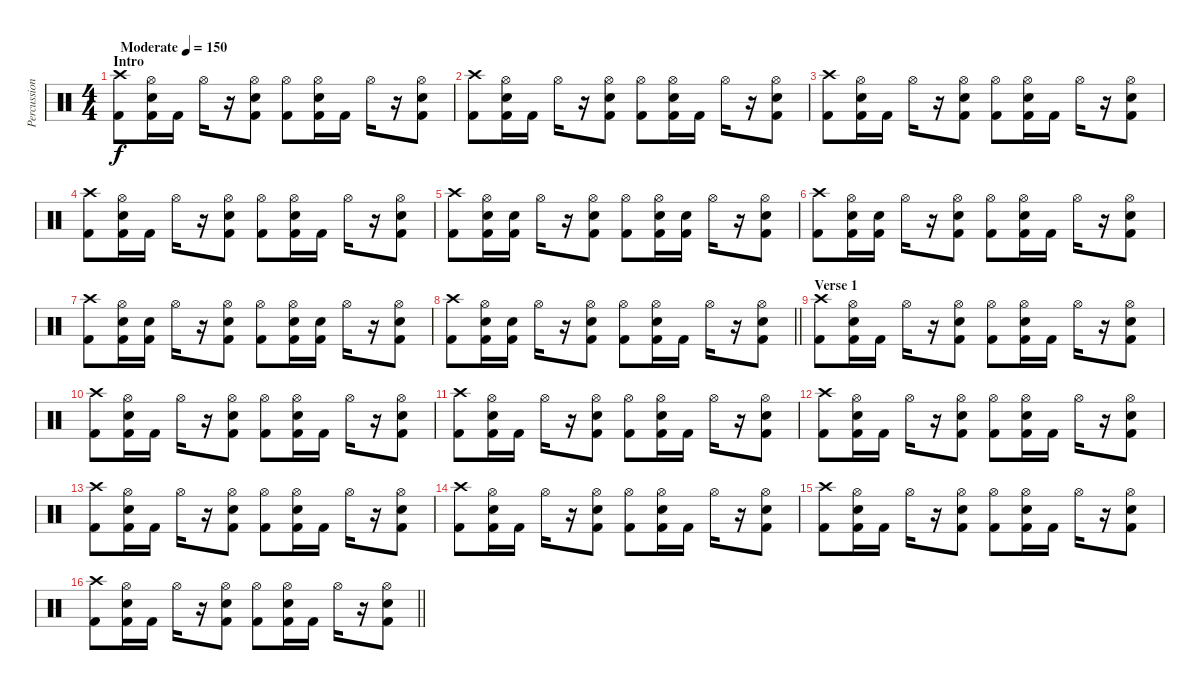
\track ("Percussion" "Percussion") {instrument percussion}
\staff {score}
\articulation defaults
\ts (4 4)
\section ("" "Intro")
\tempo (150 "Moderate")
\clef neutral
\ks c
("Crash high (hit)" "Kick (hit) 2").8{dy f} ("Hi-Hat (open)" "Snare (hit) 2" "Kick (hit) 2").16 "Kick (hit) 2".16 "Hi-Hat (open)".16 r.16 ("Hi-Hat (open)" "Snare (hit) 2" "Kick (hit) 2").8 ("Hi-Hat (open)" "Kick (hit) 2").8 ("Hi-Hat (open)" "Snare (hit) 2" "Kick (hit) 2").16 "Kick (hit) 2".16 "Hi-Hat (open)".16 r.16 ("Hi-Hat (open)" "Snare (hit) 2" "Kick (hit) 2").8 |
("Crash high (hit)" "Kick (hit) 2").8 ("Hi-Hat (open)" "Snare (hit) 2" "Kick (hit) 2").16 "Kick (hit) 2".16 "Hi-Hat (open)".16 r.16 ("Hi-Hat (open)" "Snare (hit) 2" "Kick (hit) 2").8 ("Hi-Hat (open)" "Kick (hit) 2").8 ("Hi-Hat (open)" "Snare (hit) 2" "Kick (hit) 2").16 "Kick (hit) 2".16 "Hi-Hat (open)".16 r.16 ("Hi-Hat (open)" "Snare (hit) 2" "Kick (hit) 2").8 |
("Crash high (hit)" "Kick (hit) 2").8 ("Hi-Hat (open)" "Snare (hit) 2" "Kick (hit) 2").16 "Kick (hit) 2".16 "Hi-Hat (open)".16 r.16 ("Hi-Hat (open)" "Snare (hit) 2" "Kick (hit) 2").8 ("Hi-Hat (open)" "Kick (hit) 2").8 ("Hi-Hat (open)" "Snare (hit) 2" "Kick (hit) 2").16 "Kick (hit) 2".16 "Hi-Hat (open)".16 r.16 ("Hi-Hat (open)" "Snare (hit) 2" "Kick (hit) 2").8 |
("Crash high (hit)" "Kick (hit) 2").8 ("Hi-Hat (open)" "Snare (hit) 2" "Kick (hit) 2").16 "Kick (hit) 2".16 "Hi-Hat (open)".16 r.16 ("Hi-Hat (open)" "Snare (hit) 2" "Kick (hit) 2").8 ("Hi-Hat (open)" "Kick (hit) 2").8 ("Hi-Hat (open)" "Snare (hit) 2" "Kick (hit) 2").16 "Kick (hit) 2".16 "Hi-Hat (open)".16 r.16 ("Hi-Hat (open)" "Snare (hit) 2" "Kick (hit) 2").8 |
("Crash high (hit)" "Kick (hit) 2").8 ("Hi-Hat (open)" "Snare (hit) 2" "Kick (hit) 2").16 ("Snare (hit) 2" "Kick (hit) 2").16 "Hi-Hat (open)".16 r.16 ("Hi-Hat (open)" "Snare (hit) 2" "Kick (hit) 2").8 ("Hi-Hat (open)" "Kick (hit) 2").8 ("Hi-Hat (open)" "Snare (hit) 2" "Kick (hit) 2").16 ("Snare (hit) 2" "Kick (hit) 2").16 "Hi-Hat (open)".16 r.16 ("Hi-Hat (open)" "Snare (hit) 2" "Kick (hit) 2").8 |
("Crash high (hit)" "Kick (hit) 2").8 ("Hi-Hat (open)" "Snare (hit) 2" "Kick (hit) 2").16 ("Snare (hit) 2" "Kick (hit) 2").16 "Hi-Hat (open)".16 r.16 ("Hi-Hat (open)" "Snare (hit) 2" "Kick (hit) 2").8 ("Hi-Hat (open)" "Kick (hit) 2").8 ("Hi-Hat (open)" "Snare (hit) 2" "Kick (hit) 2").16 "Kick (hit) 2".16 "Hi-Hat (open)".16 r.16 ("Hi-Hat (open)" "Snare (hit) 2" "Kick (hit) 2").8 |
("Crash high (hit)" "Kick (hit) 2").8 ("Hi-Hat (open)" "Snare (hit) 2" "Kick (hit) 2").16 ("Snare (hit) 2" "Kick (hit) 2").16 "Hi-Hat (open)".16 r.16 ("Hi-Hat (open)" "Snare (hit) 2" "Kick (hit) 2").8 ("Hi-Hat (open)" "Kick (hit) 2").8 ("Hi-Hat (open)" "Snare (hit) 2" "Kick (hit) 2").16 ("Snare (hit) 2" "Kick (hit) 2").16 "Hi-Hat (open)".16 r.16 ("Hi-Hat (open)" "Snare (hit) 2" "Kick (hit) 2").8 |
\barLineRight lightlight
("Crash high (hit)" "Kick (hit) 2").8 ("Hi-Hat (open)" "Snare (hit) 2" "Kick (hit) 2").16 ("Snare (hit) 2" "Kick (hit) 2").16 "Hi-Hat (open)".16 r.16 ("Hi-Hat (open)" "Snare (hit) 2" "Kick (hit) 2").8 ("Hi-Hat (open)" "Kick (hit) 2").8 ("Hi-Hat (open)" "Snare (hit) 2" "Kick (hit) 2").16 "Kick (hit) 2".16 "Hi-Hat (open)".16 r.16 ("Hi-Hat (open)" "Snare (hit) 2" "Kick (hit) 2").8 |
\section ("" "Verse 1 ")
("Crash high (hit)" "Kick (hit) 2").8 ("Hi-Hat (open)" "Snare (hit) 2" "Kick (hit) 2").16 "Kick (hit) 2".16 "Hi-Hat (open)".16 r.16 ("Hi-Hat (open)" "Snare (hit) 2" "Kick (hit) 2").8 ("Hi-Hat (open)" "Kick (hit) 2").8 ("Hi-Hat (open)" "Snare (hit) 2" "Kick (hit) 2").16 "Kick (hit) 2".16 "Hi-Hat (open)".16 r.16 ("Hi-Hat (open)" "Snare (hit) 2" "Kick (hit) 2").8 |
("Crash high (hit)" "Kick (hit) 2").8 ("Hi-Hat (open)" "Snare (hit) 2" "Kick (hit) 2").16 "Kick (hit) 2".16 "Hi-Hat (open)".16 r.16 ("Hi-Hat (open)" "Snare (hit) 2" "Kick (hit) 2").8 ("Hi-Hat (open)" "Kick (hit) 2").8 ("Hi-Hat (open)" "Snare (hit) 2" "Kick (hit) 2").16 "Kick (hit) 2".16 "Hi-Hat (open)".16 r.16 ("Hi-Hat (open)" "Snare (hit) 2" "Kick (hit) 2").8 |
("Crash high (hit)" "Kick (hit) 2").8 ("Hi-Hat (open)" "Snare (hit) 2" "Kick (hit) 2").16 "Kick (hit) 2".16 "Hi-Hat (open)".16 r.16 ("Hi-Hat (open)" "Snare (hit) 2" "Kick (hit) 2").8 ("Hi-Hat (open)" "Kick (hit) 2").8 ("Hi-Hat (open)" "Snare (hit) 2" "Kick (hit) 2").16 "Kick (hit) 2".16 "Hi-Hat (open)".16 r.16 ("Hi-Hat (open)" "Snare (hit) 2" "Kick (hit) 2").8 |
("Crash high (hit)" "Kick (hit) 2").8 ("Hi-Hat (open)" "Snare (hit) 2" "Kick (hit) 2").16 "Kick (hit) 2".16 "Hi-Hat (open)".16 r.16 ("Hi-Hat (open)" "Snare (hit) 2" "Kick (hit) 2").8 ("Hi-Hat (open)" "Kick (hit) 2").8 ("Hi-Hat (open)" "Snare (hit) 2" "Kick (hit) 2").16 "Kick (hit) 2".16 "Hi-Hat (open)".16 r.16 ("Hi-Hat (open)" "Snare (hit) 2" "Kick (hit) 2").8 |
("Crash high (hit)" "Kick (hit) 2").8 ("Hi-Hat (open)" "Snare (hit) 2" "Kick (hit) 2").16 "Kick (hit) 2".16 "Hi-Hat (open)".16 r.16 ("Hi-Hat (open)" "Snare (hit) 2" "Kick (hit) 2").8 ("Hi-Hat (open)" "Kick (hit) 2").8 ("Hi-Hat (open)" "Snare (hit) 2" "Kick (hit) 2").16 "Kick (hit) 2".16 "Hi-Hat (open)".16 r.16 ("Hi-Hat (open)" "Snare (hit) 2" "Kick (hit) 2").8 |
("Crash high (hit)" "Kick (hit) 2").8 ("Hi-Hat (open)" "Snare (hit) 2" "Kick (hit) 2").16 "Kick (hit) 2".16 "Hi-Hat (open)".16 r.16 ("Hi-Hat (open)" "Snare (hit) 2" "Kick (hit) 2").8 ("Hi-Hat (open)" "Kick (hit) 2").8 ("Hi-Hat (open)" "Snare (hit) 2" "Kick (hit) 2").16 "Kick (hit) 2".16 "Hi-Hat (open)".16 r.16 ("Hi-Hat (open)" "Snare (hit) 2" "Kick (hit) 2").8 |
("Crash high (hit)" "Kick (hit) 2").8 ("Hi-Hat (open)" "Snare (hit) 2" "Kick (hit) 2").16 "Kick (hit) 2".16 "Hi-Hat (open)".16 r.16 ("Hi-Hat (open)" "Snare (hit) 2" "Kick (hit) 2").8 ("Hi-Hat (open)" "Kick (hit) 2").8 ("Hi-Hat (open)" "Snare (hit) 2" "Kick (hit) 2").16 "Kick (hit) 2".16 "Hi-Hat (open)".16 r.16 ("Hi-Hat (open)" "Snare (hit) 2" "Kick (hit) 2").8 |
\barLineRight lightlight
("Crash high (hit)" "Kick (hit) 2").8 ("Hi-Hat (open)" "Snare (hit) 2" "Kick (hit) 2").16 "Kick (hit) 2".16 "Hi-Hat (open)".16 r.16 ("Hi-Hat (open)" "Snare (hit) 2" "Kick (hit) 2").8 ("Hi-Hat (open)" "Kick (hit) 2").8 ("Hi-Hat (open)" "Snare (hit) 2" "Kick (hit) 2").16 "Kick (hit) 2".16 "Hi-Hat (open)".16 r.16 ("Hi-Hat (open)" "Snare (hit) 2" "Kick (hit) 2").8
